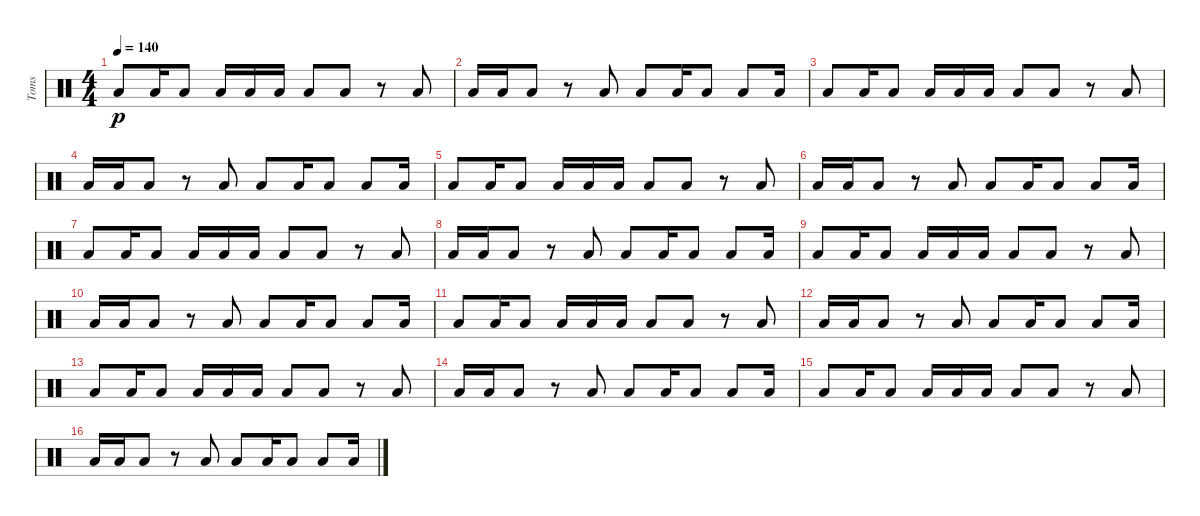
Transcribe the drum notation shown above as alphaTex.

\track ("Toms" "Toms") {instrument percussion}
\staff {score}
\articulation defaults
\ts (4 4)
\tempo 140
\clef neutral
\ks c "Low Floor Tom (hit)".8{dy p} "Low Tom (hit)".16 "Low Floor Tom (hit)".8 "Low Tom (hit)".16 "Low Floor Tom (hit)".16 "Low Floor Tom (hit)".16 "Low Floor Tom (hit)".8 "Low Tom (hit)".8
r.8 "Low Tom (hit)".8 |
"Low Floor Tom (hit)".16 "Low Floor Tom (hit)".16 "Low Tom (hit)".8 r.8 "Low Tom (hit)".8 "Low Floor Tom (hit)".8 "Low Tom (hit)".16 "Low Floor Tom (hit)".8 "Low Tom (hit)".8 "Low Floor Tom (hit)".16 |
"Low Floor Tom (hit)".8 "Low Tom (hit)".16 "Low Floor Tom (hit)".8 "Low Tom (hit)".16 "Low Floor Tom (hit)".16 "Low Floor Tom (hit)".16 "Low Floor Tom (hit)".8 "Low Tom (hit)".8 r.8 "Low Tom (hit)".8 |
"Low Floor Tom (hit)".16 "Low Floor Tom (hit)".16 "Low Tom (hit)".8 r.8 "Low Tom (hit)".8 "Low Floor Tom (hit)".8 "Low Tom (hit)".16 "Low Floor Tom (hit)".8 "Low Tom (hit)".8 "Low Floor Tom (hit)".16 |
"Low Floor Tom (hit)".8 "Low Tom (hit)".16 "Low Floor Tom (hit)".8 "Low Tom (hit)".16 "Low Floor Tom (hit)".16 "Low Floor Tom (hit)".16 "Low Floor Tom (hit)".8 "Low Tom (hit)".8 r.8 "Low Tom (hit)".8 |
"Low Floor Tom (hit)".16 "Low Floor Tom (hit)".16 "Low Tom (hit)".8 r.8 "Low Tom (hit)".8 "Low Floor Tom (hit)".8 "Low Tom (hit)".16 "Low Floor Tom (hit)".8 "Low Tom (hit)".8 "Low Floor Tom (hit)".16 |
"Low Floor Tom (hit)".8 "Low Tom (hit)".16 "Low Floor Tom (hit)".8 "Low Tom (hit)".16 "Low Floor Tom (hit)".16 "Low Floor Tom (hit)".16 "Low Floor Tom (hit)".8 "Low Tom (hit)".8 r.8 "Low Tom (hit)".8 |
"Low Floor Tom (hit)".16 "Low Floor Tom (hit)".16 "Low Tom (hit)".8 r.8 "Low Tom (hit)".8 "Low Floor Tom (hit)".8 "Low Tom (hit)".16 "Low Floor Tom (hit)".8 "Low Tom (hit)".8 "Low Floor Tom (hit)".16 |
"Low Floor Tom (hit)".8 "Low Tom (hit)".16 "Low Floor Tom (hit)".8 "Low Tom (hit)".16 "Low Floor Tom (hit)".16 "Low Floor Tom (hit)".16 "Low Floor Tom (hit)".8 "Low Tom (hit)".8 r.8 "Low Tom (hit)".8 |
"Low Floor Tom (hit)".16 "Low Floor Tom (hit)".16 "Low Tom (hit)".8 r.8 "Low Tom (hit)".8 "Low Floor Tom (hit)".8 "Low Tom (hit)".16 "Low Floor Tom (hit)".8 "Low Tom (hit)".8 "Low Floor Tom (hit)".16 |
"Low Floor Tom (hit)".8 "Low Tom (hit)".16 "Low Floor Tom (hit)".8 "Low Tom (hit)".16 "Low Floor Tom (hit)".16 "Low Floor Tom (hit)".16 "Low Floor Tom (hit)".8 "Low Tom (hit)".8 r.8 "Low Tom (hit)".8 |
"Low Floor Tom (hit)".16 "Low Floor Tom (hit)".16 "Low Tom (hit)".8 r.8 "Low Tom (hit)".8 "Low Floor Tom (hit)".8 "Low Tom (hit)".16 "Low Floor Tom (hit)".8 "Low Tom (hit)".8 "Low Floor Tom (hit)".16 |
"Low Floor Tom (hit)".8 "Low Tom (hit)".16 "Low Floor Tom (hit)".8 "Low Tom (hit)".16 "Low Floor Tom (hit)".16 "Low Floor Tom (hit)".16 "Low Floor Tom (hit)".8 "Low Tom (hit)".8 r.8 "Low Tom (hit)".8 |
"Low Floor Tom (hit)".16 "Low Floor Tom (hit)".16 "Low Tom (hit)".8 r.8 "Low Tom (hit)".8 "Low Floor Tom (hit)".8 "Low Tom (hit)".16 "Low Floor Tom (hit)".8 "Low Tom (hit)".8 "Low Floor Tom (hit)".16 |
"Low Floor Tom (hit)".8 "Low Tom (hit)".16 "Low Floor Tom (hit)".8 "Low Tom (hit)".16 "Low Floor Tom (hit)".16 "Low Floor Tom (hit)".16 "Low Floor Tom (hit)".8 "Low Tom (hit)".8 r.8 "Low Tom (hit)".8 |
"Low Floor Tom (hit)".16 "Low Floor Tom (hit)".16 "Low Tom (hit)".8 r.8 "Low Tom (hit)".8 "Low Floor Tom (hit)".8 "Low Tom (hit)".16 "Low Floor Tom (hit)".8 "Low Tom (hit)".8 "Low Floor Tom (hit)".16
